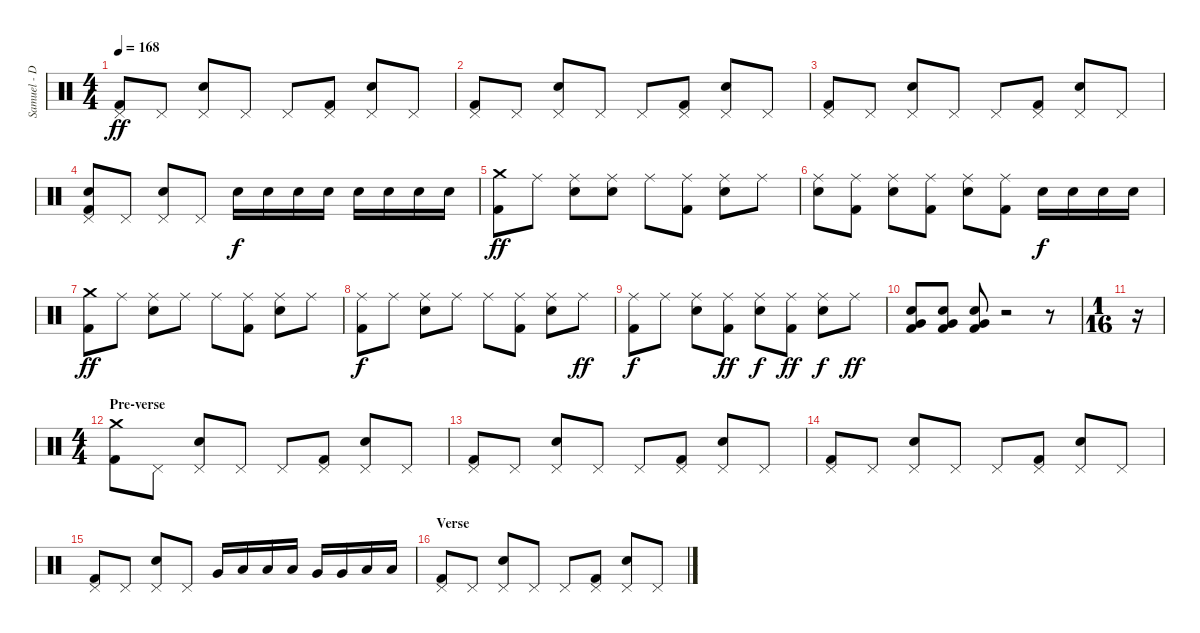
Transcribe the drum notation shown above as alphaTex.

\track ("Samuel - Drums" "Samuel - D") {instrument percussion}
\staff {score}
\articulation defaults
\ts (4 4)
\tempo 168
\clef neutral
\ks c
("Pedal Hi-Hat (hit)" "Kick (hit) 2").8{dy ff} "Pedal Hi-Hat (hit)".8 ("Pedal Hi-Hat (hit)" "Electric Snare (hit)").8 "Pedal Hi-Hat (hit)".8 "Pedal Hi-Hat (hit)".8 ("Pedal Hi-Hat (hit)" "Kick (hit) 2").8 ("Pedal Hi-Hat (hit)" "Electric Snare (hit)").8 "Pedal Hi-Hat (hit)".8 |
("Pedal Hi-Hat (hit)" "Kick (hit) 2").8 "Pedal Hi-Hat (hit)".8 ("Pedal Hi-Hat (hit)" "Electric Snare (hit)").8 "Pedal Hi-Hat (hit)".8 "Pedal Hi-Hat (hit)".8 ("Pedal Hi-Hat (hit)" "Kick (hit) 2").8 ("Pedal Hi-Hat (hit)" "Electric Snare (hit)").8 "Pedal Hi-Hat (hit)".8 |
("Pedal Hi-Hat (hit)" "Kick (hit) 2").8 "Pedal Hi-Hat (hit)".8 ("Pedal Hi-Hat (hit)" "Electric Snare (hit)").8 "Pedal Hi-Hat (hit)".8 "Pedal Hi-Hat (hit)".8 ("Pedal Hi-Hat (hit)" "Kick (hit) 2").8 ("Pedal Hi-Hat (hit)" "Electric Snare (hit)").8 "Pedal Hi-Hat (hit)".8 |
("Pedal Hi-Hat (hit)" "Electric Snare (hit)" "Kick (hit) 2").8 "Pedal Hi-Hat (hit)".8 ("Pedal Hi-Hat (hit)" "Electric Snare (hit)").8 "Pedal Hi-Hat (hit)".8 "Electric Snare (hit)".16{dy f} "Electric Snare (hit)".16 "Electric Snare (hit)".16 "Electric Snare (hit)".16 "Electric Snare (hit)".16 "Electric Snare (hit)".16 "Electric Snare (hit)".16 "Electric Snare (hit)".16 |
("Crash medium (hit)" "Kick (hit) 2").8{dy ff} "Ride (middle)".8 ("Ride (middle)" "Electric Snare (hit)").8 ("Ride (middle)" "Electric Snare (hit)").8 "Ride (middle)".8 ("Ride (middle)" "Kick (hit) 2").8 ("Ride (middle)" "Electric Snare (hit)").8 "Ride (middle)".8 |
("Ride (middle)" "Electric Snare (hit)").8 ("Ride (middle)" "Kick (hit) 2").8 ("Ride (middle)" "Electric Snare (hit)").8 ("Ride (middle)" "Kick (hit) 2").8 ("Ride (middle)" "Electric Snare (hit)").8 ("Ride (middle)" "Kick (hit) 2").8 "Electric Snare (hit)".16{dy f} "Electric Snare (hit)".16 "Electric Snare (hit)".16 "Electric Snare (hit)".16 |
("Crash medium (hit)" "Kick (hit) 2").8{dy ff} "Ride (middle)".8 ("Ride (middle)" "Electric Snare (hit)").8 "Ride (middle)".8 "Ride (middle)".8 ("Ride (middle)" "Kick (hit) 2").8 ("Ride (middle)" "Electric Snare (hit)").8 "Ride (middle)".8 |
("Ride (middle)" "Kick (hit) 2").8{dy f} "Ride (middle)".8 ("Ride (middle)" "Electric Snare (hit)").8 "Ride (middle)".8 "Ride (middle)".8 ("Ride (middle)" "Kick (hit) 2").8 ("Ride (middle)" "Electric Snare (hit)").8 "Ride (middle)".8{dy ff} |
("Ride (middle)" "Kick (hit) 2").8{dy f} "Ride (middle)".8 ("Ride (middle)" "Electric Snare (hit)").8 ("Ride (middle)" "Kick (hit) 2").8{dy ff} ("Ride (middle)" "Electric Snare (hit)").8{dy f} ("Ride (middle)" "Kick (hit) 2").8{dy ff} ("Ride (middle)" "Electric Snare (hit)").8{dy f} "Ride (middle)".8{dy ff} |
("Electric Snare (hit)" "Very Low Tom (hit)" "Kick (hit) 2").8 ("Electric Snare (hit)" "Very Low Tom (hit)" "Kick (hit) 2").8 ("Electric Snare (hit)" "Very Low Tom (hit)" "Kick (hit) 2").8 r.2 r.8 |
\ts (1 16)
r.16 |
\ts (4 4)
\section ("" "Pre-verse")
("Crash medium (hit)" "Kick (hit) 2").8 "Pedal Hi-Hat (hit)".8 ("Pedal Hi-Hat (hit)" "Electric Snare (hit)").8 "Pedal Hi-Hat (hit)".8 "Pedal Hi-Hat (hit)".8 ("Pedal Hi-Hat (hit)" "Kick (hit) 2").8 ("Pedal Hi-Hat (hit)" "Electric Snare (hit)").8 "Pedal Hi-Hat (hit)".8 |
("Pedal Hi-Hat (hit)" "Kick (hit) 2").8 "Pedal Hi-Hat (hit)".8 ("Pedal Hi-Hat (hit)" "Electric Snare (hit)").8 "Pedal Hi-Hat (hit)".8 "Pedal Hi-Hat (hit)".8 ("Pedal Hi-Hat (hit)" "Kick (hit) 2").8 ("Pedal Hi-Hat (hit)" "Electric Snare (hit)").8 "Pedal Hi-Hat (hit)".8 |
("Pedal Hi-Hat (hit)" "Kick (hit) 2").8 "Pedal Hi-Hat (hit)".8 ("Pedal Hi-Hat (hit)" "Electric Snare (hit)").8 "Pedal Hi-Hat (hit)".8 "Pedal Hi-Hat (hit)".8 ("Pedal Hi-Hat (hit)" "Kick (hit) 2").8 ("Pedal Hi-Hat (hit)" "Electric Snare (hit)").8 "Pedal Hi-Hat (hit)".8 |
("Pedal Hi-Hat (hit)" "Kick (hit) 2").8 "Pedal Hi-Hat (hit)".8 ("Pedal Hi-Hat (hit)" "Electric Snare (hit)").8 "Pedal Hi-Hat (hit)".8 "Very Low Tom (hit)".16 "Low Tom (hit)".16 "Low Tom (hit)".16 "Low Tom (hit)".16 "Very Low Tom (hit)".16 "Very Low Tom (hit)".16 "Low Tom (hit)".16 "Low Tom (hit)".16 |
\section ("" "Verse")
("Pedal Hi-Hat (hit)" "Kick (hit) 2").8 "Pedal Hi-Hat (hit)".8 ("Pedal Hi-Hat (hit)" "Electric Snare (hit)").8 "Pedal Hi-Hat (hit)".8 "Pedal Hi-Hat (hit)".8 ("Pedal Hi-Hat (hit)" "Kick (hit) 2").8 ("Pedal Hi-Hat (hit)" "Electric Snare (hit)").8 "Pedal Hi-Hat (hit)".8
